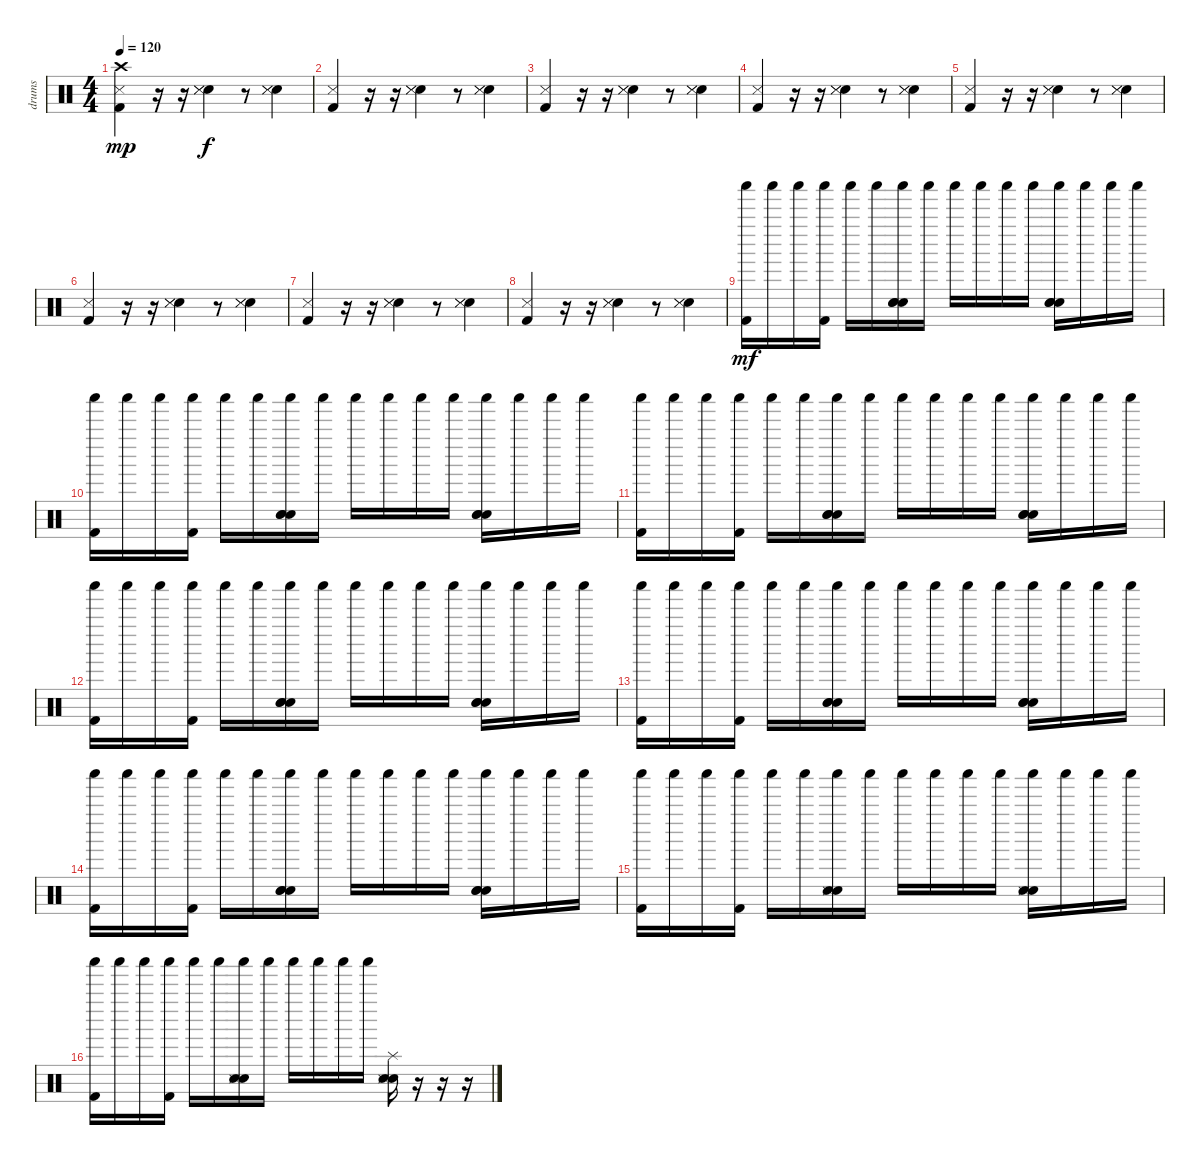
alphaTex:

\track ("drums" "drums") {instrument percussion}
\staff {score}
\articulation defaults
\ts (4 4)
\tempo 120
\clef neutral
\ks c
("Crash high (hit)" "Snare (side stick) 3" "Kick (hit) 2").4{dy mp} r.16 r.16 ("Electric Snare (hit)" "Snare (side stick) 3" "Snare (side stick) 3").4{dy f} r.8 ("Electric Snare (hit)" "Snare (side stick) 3" "Snare (side stick) 3").4 |
("Snare (side stick) 3" "Kick (hit) 2").4 r.16 r.16 ("Electric Snare (hit)" "Snare (side stick) 3" "Snare (side stick) 3").4 r.8 ("Electric Snare (hit)" "Snare (side stick) 3" "Snare (side stick) 3").4 |
("Snare (side stick) 3" "Kick (hit) 2").4 r.16 r.16 ("Electric Snare (hit)" "Snare (side stick) 3" "Snare (side stick) 3").4 r.8 ("Electric Snare (hit)" "Snare (side stick) 3" "Snare (side stick) 3").4 |
("Snare (side stick) 3" "Kick (hit) 2").4 r.16 r.16 ("Electric Snare (hit)" "Snare (side stick) 3" "Snare (side stick) 3").4 r.8 ("Electric Snare (hit)" "Snare (side stick) 3" "Snare (side stick) 3").4 |
("Snare (side stick) 3" "Kick (hit) 2").4 r.16 r.16 ("Electric Snare (hit)" "Snare (side stick) 3" "Snare (side stick) 3").4 r.8 ("Electric Snare (hit)" "Snare (side stick) 3" "Snare (side stick) 3").4 |
("Snare (side stick) 3" "Kick (hit) 2").4 r.16 r.16 ("Electric Snare (hit)" "Snare (side stick) 3" "Snare (side stick) 3").4 r.8 ("Electric Snare (hit)" "Snare (side stick) 3" "Snare (side stick) 3").4 |
("Snare (side stick) 3" "Kick (hit) 2").4 r.16 r.16 ("Electric Snare (hit)" "Snare (side stick) 3" "Snare (side stick) 3").4 r.8 ("Electric Snare (hit)" "Snare (side stick) 3" "Snare (side stick) 3").4 |
("Snare (side stick) 3" "Kick (hit) 2").4 r.16 r.16 ("Electric Snare (hit)" "Snare (side stick) 3" "Snare (side stick) 3").4 r.8 ("Electric Snare (hit)" "Snare (side stick) 3" "Snare (side stick) 3").4 |
("Kick (hit) 2" "Shaker (hit)").16{dy mf} "Shaker (hit)".16 "Shaker (hit)".16 ("Kick (hit) 2" "Shaker (hit)").16 "Shaker (hit)".16 "Shaker (hit)".16 ("Electric Snare (hit)" "Electric Snare (hit)" "Electric Snare (hit)" "Shaker (hit)").16 "Shaker (hit)".16 "Shaker (hit)".16 "Shaker (hit)".16 "Shaker (hit)".16 "Shaker (hit)".16 ("Electric Snare (hit)" "Electric Snare (hit)" "Electric Snare (hit)" "Shaker (hit)").16 "Shaker (hit)".16 "Shaker (hit)".16 "Shaker (hit)".16 |
("Kick (hit) 2" "Shaker (hit)").16 "Shaker (hit)".16 "Shaker (hit)".16 ("Kick (hit) 2" "Shaker (hit)").16 "Shaker (hit)".16 "Shaker (hit)".16 ("Electric Snare (hit)" "Electric Snare (hit)" "Electric Snare (hit)" "Shaker (hit)").16 "Shaker (hit)".16 "Shaker (hit)".16 "Shaker (hit)".16 "Shaker (hit)".16 "Shaker (hit)".16 ("Electric Snare (hit)" "Electric Snare (hit)" "Electric Snare (hit)" "Shaker (hit)").16 "Shaker (hit)".16 "Shaker (hit)".16 "Shaker (hit)".16 |
("Kick (hit) 2" "Shaker (hit)").16 "Shaker (hit)".16 "Shaker (hit)".16 ("Kick (hit) 2" "Shaker (hit)").16 "Shaker (hit)".16 "Shaker (hit)".16 ("Electric Snare (hit)" "Electric Snare (hit)" "Electric Snare (hit)" "Shaker (hit)").16 "Shaker (hit)".16 "Shaker (hit)".16 "Shaker (hit)".16 "Shaker (hit)".16 "Shaker (hit)".16 ("Electric Snare (hit)" "Electric Snare (hit)" "Electric Snare (hit)" "Shaker (hit)").16 "Shaker (hit)".16 "Shaker (hit)".16 "Shaker (hit)".16 |
("Kick (hit) 2" "Shaker (hit)").16 "Shaker (hit)".16 "Shaker (hit)".16 ("Kick (hit) 2" "Shaker (hit)").16 "Shaker (hit)".16 "Shaker (hit)".16 ("Electric Snare (hit)" "Electric Snare (hit)" "Electric Snare (hit)" "Shaker (hit)").16 "Shaker (hit)".16 "Shaker (hit)".16 "Shaker (hit)".16 "Shaker (hit)".16 "Shaker (hit)".16 ("Electric Snare (hit)" "Electric Snare (hit)" "Electric Snare (hit)" "Shaker (hit)").16 "Shaker (hit)".16 "Shaker (hit)".16 "Shaker (hit)".16 |
("Kick (hit) 2" "Shaker (hit)").16 "Shaker (hit)".16 "Shaker (hit)".16 ("Kick (hit) 2" "Shaker (hit)").16 "Shaker (hit)".16 "Shaker (hit)".16 ("Electric Snare (hit)" "Electric Snare (hit)" "Electric Snare (hit)" "Shaker (hit)").16 "Shaker (hit)".16 "Shaker (hit)".16 "Shaker (hit)".16 "Shaker (hit)".16 "Shaker (hit)".16 ("Electric Snare (hit)" "Electric Snare (hit)" "Electric Snare (hit)" "Shaker (hit)").16 "Shaker (hit)".16 "Shaker (hit)".16 "Shaker (hit)".16 |
("Kick (hit) 2" "Shaker (hit)").16 "Shaker (hit)".16 "Shaker (hit)".16 ("Kick (hit) 2" "Shaker (hit)").16 "Shaker (hit)".16 "Shaker (hit)".16 ("Electric Snare (hit)" "Electric Snare (hit)" "Electric Snare (hit)" "Shaker (hit)").16 "Shaker (hit)".16 "Shaker (hit)".16 "Shaker (hit)".16 "Shaker (hit)".16 "Shaker (hit)".16 ("Electric Snare (hit)" "Electric Snare (hit)" "Electric Snare (hit)" "Shaker (hit)").16 "Shaker (hit)".16 "Shaker (hit)".16 "Shaker (hit)".16 |
("Kick (hit) 2" "Shaker (hit)").16 "Shaker (hit)".16 "Shaker (hit)".16 ("Kick (hit) 2" "Shaker (hit)").16 "Shaker (hit)".16 "Shaker (hit)".16 ("Electric Snare (hit)" "Snare (side stick) 3" "Electric Snare (hit)" "Shaker (hit)").16 "Shaker (hit)".16 "Shaker (hit)".16 "Shaker (hit)".16 "Shaker (hit)".16 "Shaker (hit)".16 ("Electric Snare (hit)" "Snare (side stick) 3" "Electric Snare (hit)" "Shaker (hit)").16 "Shaker (hit)".16 "Shaker (hit)".16 "Shaker (hit)".16 |
("Kick (hit) 2" "Shaker (hit)").16 "Shaker (hit)".16 "Shaker (hit)".16 ("Kick (hit) 2" "Shaker (hit)").16 "Shaker (hit)".16 "Shaker (hit)".16 ("Electric Snare (hit)" "Snare (side stick) 3" "Electric Snare (hit)" "Shaker (hit)").16 "Shaker (hit)".16 "Shaker (hit)".16 "Shaker (hit)".16 "Shaker (hit)".16 "Shaker (hit)".16 ("Electric Snare (hit)" "Electric Snare (hit)" "Splash (hit)" "Snare (side stick) 3").16 r.16 r.16 r.16
